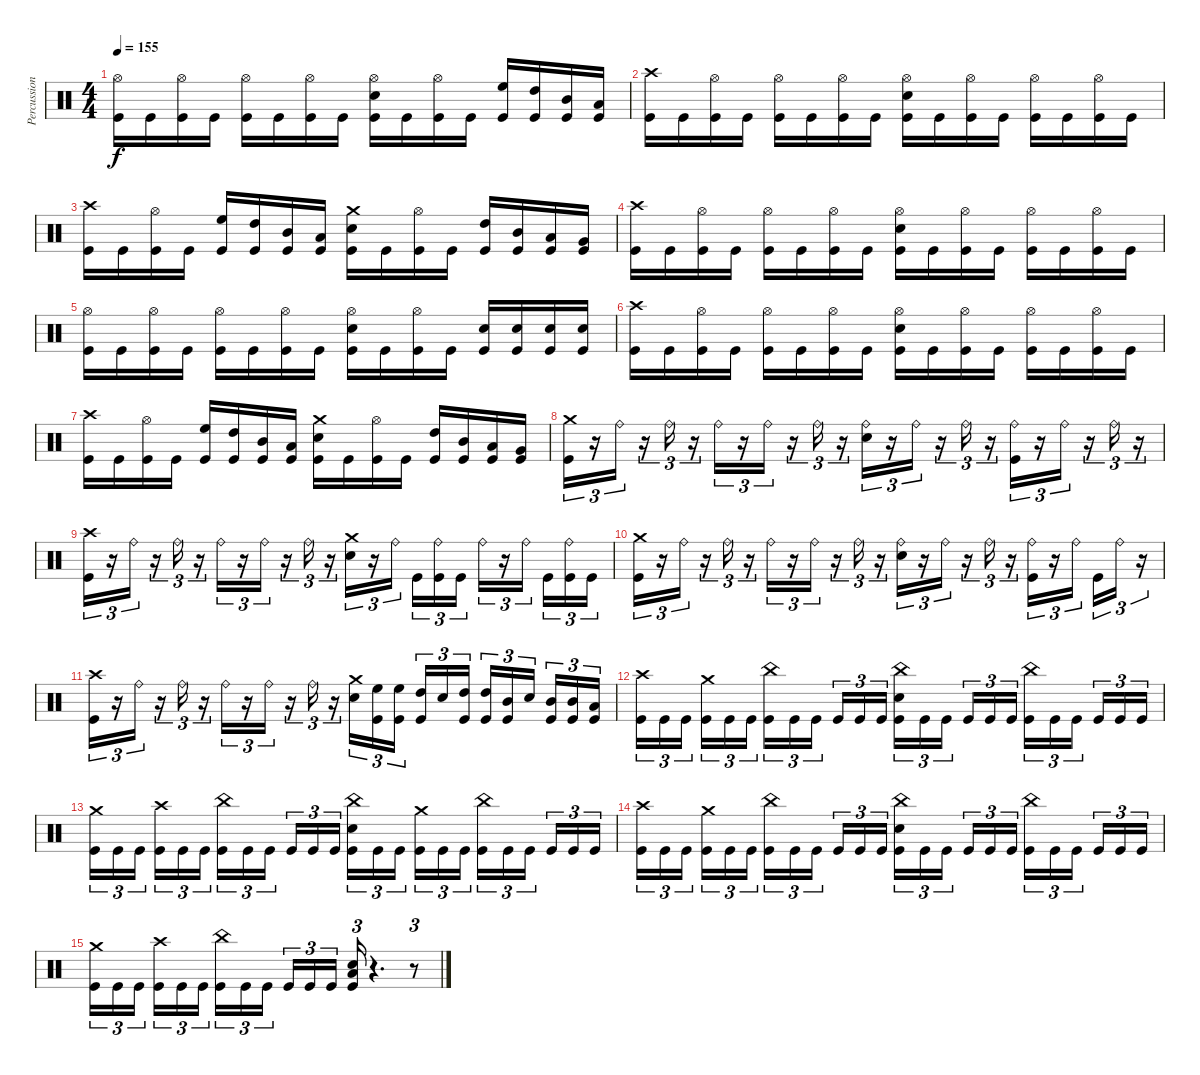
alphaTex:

\track ("Percussion" "Percussion") {instrument percussion}
\staff {score}
\articulation defaults
\ts (4 4)
\tempo 155
\clef neutral
\ks c
("Hi-Hat (open)" "Kick (hit)").16{dy f} "Kick (hit)".16 ("Hi-Hat (open)" "Kick (hit)").16 "Kick (hit)".16 ("Hi-Hat (open)" "Kick (hit)").16 "Kick (hit)".16 ("Hi-Hat (open)" "Kick (hit)").16 "Kick (hit)".16 ("Hi-Hat (open)" "Snare (hit) 2" "Kick (hit)").16 "Kick (hit)".16 ("Hi-Hat (open)" "Kick (hit)").16 "Kick (hit)".16 ("High Floor Tom (hit)" "Kick (hit)").16 ("High Tom (hit)" "Kick (hit)").16 ("Mid Tom (hit)" "Kick (hit)").16 ("Low Tom (hit)" "Kick (hit)").16 |
("Crash high (hit)" "Kick (hit)").16 "Kick (hit)".16 ("Hi-Hat (open)" "Kick (hit)").16 "Kick (hit)".16 ("Hi-Hat (open)" "Kick (hit)").16 "Kick (hit)".16 ("Hi-Hat (open)" "Kick (hit)").16 "Kick (hit)".16 ("Hi-Hat (open)" "Snare (hit) 2" "Kick (hit)").16 "Kick (hit)".16 ("Hi-Hat (open)" "Kick (hit)").16 "Kick (hit)".16 ("Hi-Hat (open)" "Kick (hit)").16 "Kick (hit)".16 ("Hi-Hat (open)" "Kick (hit)").16 "Kick (hit)".16 |
("Crash high (hit)" "Kick (hit)").16 "Kick (hit)".16 ("Hi-Hat (open)" "Kick (hit)").16 "Kick (hit)".16 ("High Floor Tom (hit)" "Kick (hit)").16 ("High Tom (hit)" "Kick (hit)").16 ("Mid Tom (hit)" "Kick (hit)").16 ("Low Tom (hit)" "Kick (hit)").16 ("Crash medium (hit)" "Snare (hit) 2" "Kick (hit)").16 "Kick (hit)".16 ("Hi-Hat (open)" "Kick (hit)").16 "Kick (hit)".16 ("High Tom (hit)" "Kick (hit)").16 ("Mid Tom (hit)" "Kick (hit)").16 ("Low Tom (hit)" "Kick (hit)").16 ("Very Low Tom (hit)" "Kick (hit)").16 |
("Crash high (hit)" "Kick (hit)").16 "Kick (hit)".16 ("Hi-Hat (open)" "Kick (hit)").16 "Kick (hit)".16 ("Hi-Hat (open)" "Kick (hit)").16 "Kick (hit)".16 ("Hi-Hat (open)" "Kick (hit)").16 "Kick (hit)".16 ("Hi-Hat (open)" "Snare (hit) 2" "Kick (hit)").16 "Kick (hit)".16 ("Hi-Hat (open)" "Kick (hit)").16 "Kick (hit)".16 ("Hi-Hat (open)" "Kick (hit)").16 "Kick (hit)".16 ("Hi-Hat (open)" "Kick (hit)").16 "Kick (hit)".16 |
("Hi-Hat (open)" "Kick (hit)").16 "Kick (hit)".16 ("Hi-Hat (open)" "Kick (hit)").16 "Kick (hit)".16 ("Hi-Hat (open)" "Kick (hit)").16 "Kick (hit)".16 ("Hi-Hat (open)" "Kick (hit)").16 "Kick (hit)".16 ("Hi-Hat (open)" "Snare (hit) 2" "Kick (hit)").16 "Kick (hit)".16 ("Hi-Hat (open)" "Kick (hit)").16 "Kick (hit)".16 ("Snare (hit) 2" "Kick (hit)").16 ("Snare (hit) 2" "Kick (hit)").16 ("Snare (hit) 2" "Kick (hit)").16 ("Snare (hit) 2" "Kick (hit)").16 |
("Crash high (hit)" "Kick (hit)").16 "Kick (hit)".16 ("Hi-Hat (open)" "Kick (hit)").16 "Kick (hit)".16 ("Hi-Hat (open)" "Kick (hit)").16 "Kick (hit)".16 ("Hi-Hat (open)" "Kick (hit)").16 "Kick (hit)".16 ("Hi-Hat (open)" "Snare (hit) 2" "Kick (hit)").16 "Kick (hit)".16 ("Hi-Hat (open)" "Kick (hit)").16 "Kick (hit)".16 ("Hi-Hat (open)" "Kick (hit)").16 "Kick (hit)".16 ("Hi-Hat (open)" "Kick (hit)").16 "Kick (hit)".16 |
("Crash high (hit)" "Kick (hit)").16 "Kick (hit)".16 ("Hi-Hat (open)" "Kick (hit)").16 "Kick (hit)".16 ("High Floor Tom (hit)" "Kick (hit)").16 ("High Tom (hit)" "Kick (hit)").16 ("Mid Tom (hit)" "Kick (hit)").16 ("Low Tom (hit)" "Kick (hit)").16 ("Crash medium (hit)" "Snare (hit) 2" "Kick (hit)").16 "Kick (hit)".16 ("Hi-Hat (open)" "Kick (hit)").16 "Kick (hit)".16 ("High Tom (hit)" "Kick (hit)").16 ("Mid Tom (hit)" "Kick (hit)").16 ("Low Tom (hit)" "Kick (hit)").16 ("Very Low Tom (hit)" "Kick (hit)").16 |
("Crash medium (hit)" "Kick (hit)").16{tu (3 2)} r.16{tu (3 2)} "Ride (bell)".16{tu (3 2)} r.16{tu (3 2)} "Ride (bell)".16{tu (3 2)} r.16{tu (3 2)} "Ride (bell)".16{tu (3 2)} r.16{tu (3 2)} "Ride (bell)".16{tu (3 2)} r.16{tu (3 2)} "Ride (bell)".16{tu (3 2)} r.16{tu (3 2)} ("Ride (bell)" "Snare (hit) 2").16{tu (3 2)} r.16{tu (3 2)} "Ride (bell)".16{tu (3 2)} r.16{tu (3 2)} "Ride (bell)".16{tu (3 2)} r.16{tu (3 2)} ("Ride (bell)" "Kick (hit)").16{tu (3 2)} r.16{tu (3 2)} "Ride (bell)".16{tu (3 2)} r.16{tu (3 2)} "Ride (bell)".16{tu (3 2)} r.16{tu (3 2)} |
("Crash high (hit)" "Kick (hit)").16{tu (3 2)} r.16{tu (3 2)} "Ride (bell)".16{tu (3 2)} r.16{tu (3 2)} "Ride (bell)".16{tu (3 2)} r.16{tu (3 2)} "Ride (bell)".16{tu (3 2)} r.16{tu (3 2)} "Ride (bell)".16{tu (3 2)} r.16{tu (3 2)} "Ride (bell)".16{tu (3 2)} r.16{tu (3 2)} ("Crash medium (hit)" "Snare (hit) 2").16{tu (3 2)} r.16{tu (3 2)} "Ride (bell)".16{tu (3 2) beam splitsecondary} "Kick (hit)".16{tu (3 2)} ("Ride (bell)" "Kick (hit)").16{tu (3 2)} "Kick (hit)".16{tu (3 2)} "Ride (bell)".16{tu (3 2)} r.16{tu (3 2)} "Ride (bell)".16{tu (3 2) beam splitsecondary} "Kick (hit)".16{tu (3 2)} ("Ride (bell)" "Kick (hit)").16{tu (3 2)} "Kick (hit)".16{tu (3 2)} |
("Crash medium (hit)" "Kick (hit)").16{tu (3 2)} r.16{tu (3 2)} "Ride (bell)".16{tu (3 2)} r.16{tu (3 2)} "Ride (bell)".16{tu (3 2)} r.16{tu (3 2)} "Ride (bell)".16{tu (3 2)} r.16{tu (3 2)} "Ride (bell)".16{tu (3 2)} r.16{tu (3 2)} "Ride (bell)".16{tu (3 2)} r.16{tu (3 2)} ("Ride (bell)" "Snare (hit) 2").16{tu (3 2)} r.16{tu (3 2)} "Ride (bell)".16{tu (3 2)} r.16{tu (3 2)} "Ride (bell)".16{tu (3 2)} r.16{tu (3 2)} ("Ride (bell)" "Kick (hit)").16{tu (3 2)} r.16{tu (3 2)} "Ride (bell)".16{tu (3 2) beam splitsecondary} "Kick (hit)".16{tu (3 2)} "Ride (bell)".16{tu (3 2)} r.16{tu (3 2)} |
("Crash high (hit)" "Kick (hit)").16{tu (3 2)} r.16{tu (3 2)} "Ride (bell)".16{tu (3 2)} r.16{tu (3 2)} "Ride (bell)".16{tu (3 2)} r.16{tu (3 2)} "Ride (bell)".16{tu (3 2)} r.16{tu (3 2)} "Ride (bell)".16{tu (3 2)} r.16{tu (3 2)} "Ride (bell)".16{tu (3 2)} r.16{tu (3 2)} ("Crash medium (hit)" "Snare (hit) 2").16{tu (3 2)} ("High Floor Tom (hit)" "Kick (hit)").16{tu (3 2)} ("High Floor Tom (hit)" "Kick (hit)").16{tu (3 2) beam splitsecondary} ("High Tom (hit)" "Kick (hit)").16{tu (3 2)} "Snare (hit) 2".16{tu (3 2)} ("High Tom (hit)" "Kick (hit)").16{tu (3 2)} ("High Tom (hit)" "Kick (hit)").16{tu (3 2)} ("Mid Tom (hit)" "Kick (hit)").16{tu (3 2)} "Snare (hit) 2".16{tu (3 2) beam splitsecondary} ("Mid Tom (hit)" "Kick (hit)").16{tu (3 2)} ("Mid Tom (hit)" "Kick (hit)").16{tu (3 2)} ("Low Tom (hit)" "Kick (hit)").16{tu (3 2)} |
("Crash high (hit)" "Kick (hit)").16{tu (3 2)} "Kick (hit)".16{tu (3 2)} "Kick (hit)".16{tu (3 2) beam splitsecondary} ("Crash medium (hit)" "Kick (hit)").16{tu (3 2)} "Kick (hit)".16{tu (3 2)} "Kick (hit)".16{tu (3 2)} ("China (hit)" "Kick (hit)").16{tu (3 2)} "Kick (hit)".16{tu (3 2)} "Kick (hit)".16{tu (3 2) beam splitsecondary} "Kick (hit)".16{tu (3 2)} "Kick (hit)".16{tu (3 2)} "Kick (hit)".16{tu (3 2)} ("China (hit)" "Snare (hit) 2" "Kick (hit)").16{tu (3 2)} "Kick (hit)".16{tu (3 2)} "Kick (hit)".16{tu (3 2) beam splitsecondary} "Kick (hit)".16{tu (3 2)} "Kick (hit)".16{tu (3 2)} "Kick (hit)".16{tu (3 2)} ("China (hit)" "Kick (hit)").16{tu (3 2)} "Kick (hit)".16{tu (3 2)} "Kick (hit)".16{tu (3 2) beam splitsecondary} "Kick (hit)".16{tu (3 2)} "Kick (hit)".16{tu (3 2)} "Kick (hit)".16{tu (3 2)} |
("Crash medium (hit)" "Kick (hit)").16{tu (3 2)} "Kick (hit)".16{tu (3 2)} "Kick (hit)".16{tu (3 2) beam splitsecondary} ("Crash high (hit)" "Kick (hit)").16{tu (3 2)} "Kick (hit)".16{tu (3 2)} "Kick (hit)".16{tu (3 2)} ("China (hit)" "Kick (hit)").16{tu (3 2)} "Kick (hit)".16{tu (3 2)} "Kick (hit)".16{tu (3 2) beam splitsecondary} "Kick (hit)".16{tu (3 2)} "Kick (hit)".16{tu (3 2)} "Kick (hit)".16{tu (3 2)} ("China (hit)" "Snare (hit) 2" "Kick (hit)").16{tu (3 2)} "Kick (hit)".16{tu (3 2)} "Kick (hit)".16{tu (3 2) beam splitsecondary} ("Crash medium (hit)" "Kick (hit)").16{tu (3 2)} "Kick (hit)".16{tu (3 2)} "Kick (hit)".16{tu (3 2)} ("China (hit)" "Kick (hit)").16{tu (3 2)} "Kick (hit)".16{tu (3 2)} "Kick (hit)".16{tu (3 2) beam splitsecondary} "Kick (hit)".16{tu (3 2)} "Kick (hit)".16{tu (3 2)} "Kick (hit)".16{tu (3 2)} |
("Crash high (hit)" "Kick (hit)").16{tu (3 2)} "Kick (hit)".16{tu (3 2)} "Kick (hit)".16{tu (3 2) beam splitsecondary} ("Crash medium (hit)" "Kick (hit)").16{tu (3 2)} "Kick (hit)".16{tu (3 2)} "Kick (hit)".16{tu (3 2)} ("China (hit)" "Kick (hit)").16{tu (3 2)} "Kick (hit)".16{tu (3 2)} "Kick (hit)".16{tu (3 2) beam splitsecondary} "Kick (hit)".16{tu (3 2)} "Kick (hit)".16{tu (3 2)} "Kick (hit)".16{tu (3 2)} ("China (hit)" "Snare (hit) 2" "Kick (hit)").16{tu (3 2)} "Kick (hit)".16{tu (3 2)} "Kick (hit)".16{tu (3 2) beam splitsecondary} "Kick (hit)".16{tu (3 2)} "Kick (hit)".16{tu (3 2)} "Kick (hit)".16{tu (3 2)} ("China (hit)" "Kick (hit)").16{tu (3 2)} "Kick (hit)".16{tu (3 2)} "Kick (hit)".16{tu (3 2) beam splitsecondary} "Kick (hit)".16{tu (3 2)} "Kick (hit)".16{tu (3 2)} "Kick (hit)".16{tu (3 2)} |
("Crash medium (hit)" "Kick (hit)").16{tu (3 2)} "Kick (hit)".16{tu (3 2)} "Kick (hit)".16{tu (3 2) beam splitsecondary} ("Crash high (hit)" "Kick (hit)").16{tu (3 2)} "Kick (hit)".16{tu (3 2)} "Kick (hit)".16{tu (3 2)} ("China (hit)" "Kick (hit)").16{tu (3 2)} "Kick (hit)".16{tu (3 2)} "Kick (hit)".16{tu (3 2) beam splitsecondary} "Kick (hit)".16{tu (3 2)} "Kick (hit)".16{tu (3 2)} "Kick (hit)".16{tu (3 2)} ("Low Floor Tom (hit)" "Snare (hit) 2" "Kick (hit)").16{tu (3 2)} r.4{d} r.8{tu (3 2)}
